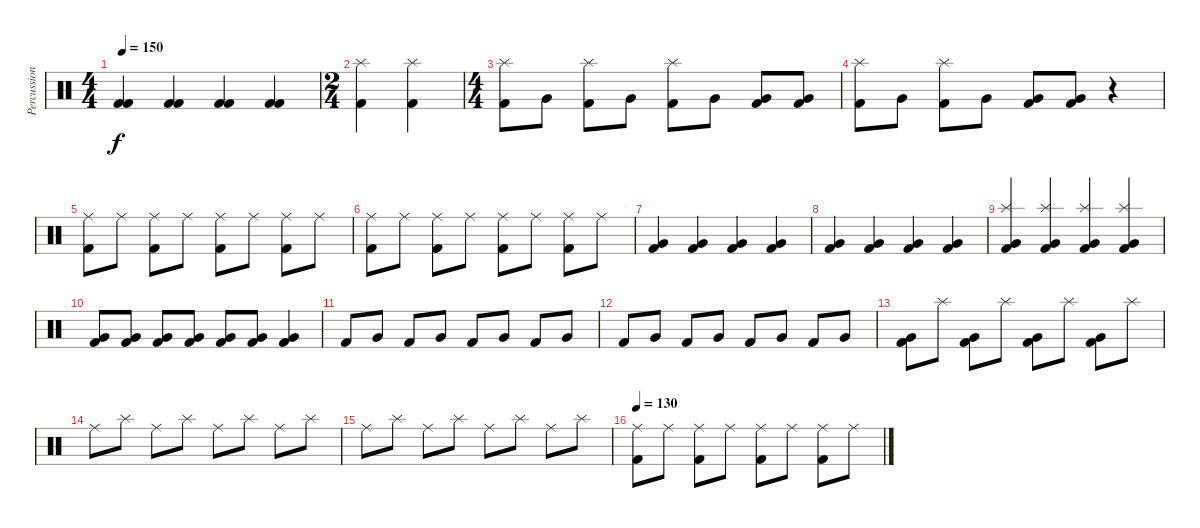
\track ("Percussion" "Percussion") {instrument percussion}
\staff {score}
\articulation defaults
\ts (4 4)
\tempo 150
\clef neutral
\ks c
("Kick (hit) 2" "Kick (hit) 2").4{dy f} ("Kick (hit) 2" "Kick (hit) 2").4 ("Kick (hit) 2" "Kick (hit) 2").4 ("Kick (hit) 2" "Kick (hit) 2").4 |
\ts (2 4)
("Splash (hit)" "Kick (hit) 2").4 ("Splash (hit)" "Kick (hit) 2").4 |
\ts (4 4)
("Splash (hit)" "Kick (hit) 2").8 "Very Low Tom (hit)".8 ("Splash (hit)" "Kick (hit) 2").8 "Very Low Tom (hit)".8 ("Splash (hit)" "Kick (hit) 2").8 "Very Low Tom (hit)".8 ("Very Low Tom (hit)" "Kick (hit) 2").8 ("Kick (hit) 2" "Very Low Tom (hit)").8 |
("Splash (hit)" "Kick (hit) 2").8 "Very Low Tom (hit)".8 ("Splash (hit)" "Kick (hit) 2").8 "Very Low Tom (hit)".8 ("Kick (hit) 2" "Very Low Tom (hit)").8 ("Kick (hit) 2" "Very Low Tom (hit)").8 r.4 |
("Ride (middle)" "Kick (hit) 2").8 "Ride (middle)".8 ("Ride (middle)" "Kick (hit) 2").8 "Ride (middle)".8 ("Ride (middle)" "Kick (hit) 2").8 "Ride (middle)".8 ("Ride (middle)" "Kick (hit) 2").8 "Ride (middle)".8 |
("Ride (middle)" "Kick (hit) 2").8 "Ride (middle)".8 ("Ride (middle)" "Kick (hit) 2").8 "Ride (middle)".8 ("Ride (middle)" "Kick (hit) 2").8 "Ride (middle)".8 ("Ride (middle)" "Kick (hit) 2").8 "Ride (middle)".8 |
("Very Low Tom (hit)" "Kick (hit) 2").4 ("Very Low Tom (hit)" "Kick (hit) 2").4 ("Very Low Tom (hit)" "Kick (hit) 2").4 ("Very Low Tom (hit)" "Kick (hit) 2").4 |
("Very Low Tom (hit)" "Kick (hit) 2").4 ("Very Low Tom (hit)" "Kick (hit) 2").4 ("Very Low Tom (hit)" "Kick (hit) 2").4 ("Very Low Tom (hit)" "Kick (hit) 2").4 |
("Splash (hit)" "Very Low Tom (hit)" "Kick (hit) 2").4 ("Splash (hit)" "Very Low Tom (hit)" "Kick (hit) 2").4 ("Splash (hit)" "Very Low Tom (hit)" "Kick (hit) 2").4 ("Splash (hit)" "Very Low Tom (hit)" "Kick (hit) 2").4 |
("Very Low Tom (hit)" "Kick (hit) 2").8 ("Very Low Tom (hit)" "Kick (hit) 2").8 ("Very Low Tom (hit)" "Kick (hit) 2").8 ("Very Low Tom (hit)" "Kick (hit) 2").8 ("Very Low Tom (hit)" "Kick (hit) 2").8 ("Very Low Tom (hit)" "Kick (hit) 2").8 ("Very Low Tom (hit)" "Kick (hit) 2").4 |
"Kick (hit) 2".8 "Very Low Tom (hit)".8 "Kick (hit) 2".8 "Very Low Tom (hit)".8 "Kick (hit) 2".8 "Very Low Tom (hit)".8 "Kick (hit) 2".8 "Very Low Tom (hit)".8 |
"Kick (hit) 2".8 "Very Low Tom (hit)".8 "Kick (hit) 2".8 "Very Low Tom (hit)".8 "Kick (hit) 2".8 "Very Low Tom (hit)".8 "Kick (hit) 2".8 "Very Low Tom (hit)".8 |
("Very Low Tom (hit)" "Kick (hit) 2").8 "Splash (hit)".8 ("Very Low Tom (hit)" "Kick (hit) 2").8 "Splash (hit)".8 ("Very Low Tom (hit)" "Kick (hit) 2").8 "Splash (hit)".8 ("Very Low Tom (hit)" "Kick (hit) 2").8 "Splash (hit)".8 |
"Ride (middle)".8 "Splash (hit)".8 "Ride (middle)".8 "Splash (hit)".8 "Ride (middle)".8 "Splash (hit)".8 "Ride (middle)".8 "Splash (hit)".8 |
"Ride (middle)".8 "Splash (hit)".8 "Ride (middle)".8 "Splash (hit)".8 "Ride (middle)".8 "Splash (hit)".8 "Ride (middle)".8 "Splash (hit)".8 |
\tempo 130
("Ride (middle)" "Kick (hit) 2").8 "Ride (middle)".8 ("Ride (middle)" "Kick (hit) 2").8 "Ride (middle)".8 ("Ride (middle)" "Kick (hit) 2").8 "Ride (middle)".8 ("Ride (middle)" "Kick (hit) 2").8 "Ride (middle)".8
